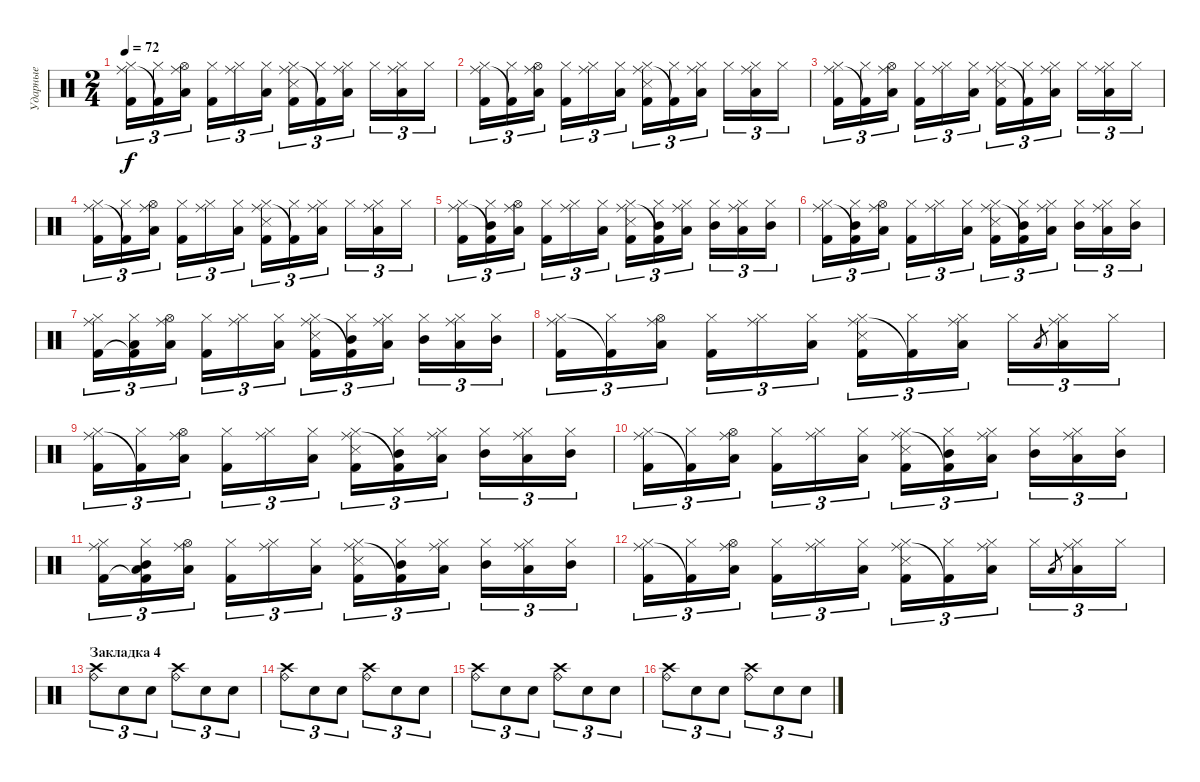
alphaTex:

\track ("Ударные" "Ударные") {instrument percussion}
\staff {score}
\articulation defaults
\ts (2 4)
\tempo 72
\clef neutral
\ks c
("Hi-Hat (closed)" "Ride (middle)" "Kick (hit) 2").16{tu (3 2) dy f} ("Hi-Hat (closed)" "Kick (hit) 2"{t}).16{tu (3 2)} ("Hi-Hat (open)" "Ride (middle)" "Low Tom (hit)").16{tu (3 2)} ("Hi-Hat (closed)" "Kick (hit) 2").16{tu (3 2)} ("Hi-Hat (closed)" "Ride (middle)").16{tu (3 2)} ("Hi-Hat (closed)" "Low Tom (hit)").16{tu (3 2)} ("Hi-Hat (closed)" "Ride (middle)" "Snare (side stick) 3" "Kick (hit) 2").16{tu (3 2)} ("Hi-Hat (closed)" "Kick (hit) 2"{t}).16{tu (3 2)} ("Hi-Hat (closed)" "Ride (middle)" "Low Tom (hit)").16{tu (3 2)} "Hi-Hat (closed)".16{tu (3 2)} ("Hi-Hat (closed)" "Ride (middle)" "Low Tom (hit)").16{tu (3 2)} "Hi-Hat (closed)".16{tu (3 2)} |
("Hi-Hat (closed)" "Ride (middle)" "Kick (hit) 2").16{tu (3 2)} ("Hi-Hat (closed)" "Kick (hit) 2"{t}).16{tu (3 2)} ("Hi-Hat (open)" "Ride (middle)" "Low Tom (hit)").16{tu (3 2)} ("Hi-Hat (closed)" "Kick (hit) 2").16{tu (3 2)} ("Hi-Hat (closed)" "Ride (middle)").16{tu (3 2)} ("Hi-Hat (closed)" "Low Tom (hit)").16{tu (3 2)} ("Hi-Hat (closed)" "Ride (middle)" "Snare (side stick) 3" "Kick (hit) 2").16{tu (3 2)} ("Hi-Hat (closed)" "Kick (hit) 2"{t}).16{tu (3 2)} ("Hi-Hat (closed)" "Ride (middle)" "Low Tom (hit)").16{tu (3 2)} "Hi-Hat (closed)".16{tu (3 2)} ("Hi-Hat (closed)" "Ride (middle)" "Low Tom (hit)").16{tu (3 2)} "Hi-Hat (closed)".16{tu (3 2)} |
("Hi-Hat (closed)" "Ride (middle)" "Kick (hit) 2").16{tu (3 2)} ("Hi-Hat (closed)" "Kick (hit) 2"{t}).16{tu (3 2)} ("Hi-Hat (open)" "Ride (middle)" "Low Tom (hit)").16{tu (3 2)} ("Hi-Hat (closed)" "Kick (hit) 2").16{tu (3 2)} ("Hi-Hat (closed)" "Ride (middle)").16{tu (3 2)} ("Hi-Hat (closed)" "Low Tom (hit)").16{tu (3 2)} ("Hi-Hat (closed)" "Ride (middle)" "Snare (side stick) 3" "Kick (hit) 2").16{tu (3 2)} ("Hi-Hat (closed)" "Kick (hit) 2"{t}).16{tu (3 2)} ("Hi-Hat (closed)" "Ride (middle)" "Low Tom (hit)").16{tu (3 2)} "Hi-Hat (closed)".16{tu (3 2)} ("Hi-Hat (closed)" "Ride (middle)" "Low Tom (hit)").16{tu (3 2)} "Hi-Hat (closed)".16{tu (3 2)} |
("Hi-Hat (closed)" "Ride (middle)" "Kick (hit) 2").16{tu (3 2)} ("Hi-Hat (closed)" "Kick (hit) 2"{t}).16{tu (3 2)} ("Hi-Hat (open)" "Ride (middle)" "Low Tom (hit)").16{tu (3 2)} ("Hi-Hat (closed)" "Kick (hit) 2").16{tu (3 2)} ("Hi-Hat (closed)" "Ride (middle)").16{tu (3 2)} ("Hi-Hat (closed)" "Low Tom (hit)").16{tu (3 2)} ("Hi-Hat (closed)" "Ride (middle)" "Snare (side stick) 3" "Kick (hit) 2").16{tu (3 2)} ("Hi-Hat (closed)" "Kick (hit) 2"{t}).16{tu (3 2)} ("Hi-Hat (closed)" "Ride (middle)" "Low Tom (hit)").16{tu (3 2)} "Hi-Hat (closed)".16{tu (3 2)} ("Hi-Hat (closed)" "Ride (middle)" "Low Tom (hit)").16{tu (3 2)} "Hi-Hat (closed)".16{tu (3 2)} |
("Hi-Hat (closed)" "Ride (middle)" "Kick (hit) 2").16{tu (3 2)} ("Hi-Hat (closed)" "Kick (hit) 2"{t} "Mid Tom (hit)").16{tu (3 2)} ("Hi-Hat (open)" "Ride (middle)" "Low Tom (hit)").16{tu (3 2)} ("Hi-Hat (closed)" "Kick (hit) 2").16{tu (3 2)} ("Hi-Hat (closed)" "Ride (middle)").16{tu (3 2)} ("Hi-Hat (closed)" "Low Tom (hit)").16{tu (3 2)} ("Hi-Hat (closed)" "Ride (middle)" "Snare (side stick) 3" "Kick (hit) 2").16{tu (3 2)} ("Hi-Hat (closed)" "Kick (hit) 2"{t} "Mid Tom (hit)").16{tu (3 2)} ("Hi-Hat (closed)" "Ride (middle)" "Low Tom (hit)").16{tu (3 2)} ("Hi-Hat (closed)" "Mid Tom (hit)").16{tu (3 2)} ("Hi-Hat (closed)" "Ride (middle)" "Low Tom (hit)").16{tu (3 2)} ("Hi-Hat (closed)" "Mid Tom (hit)").16{tu (3 2)} |
("Hi-Hat (closed)" "Ride (middle)" "Kick (hit) 2").16{tu (3 2)} ("Hi-Hat (closed)" "Kick (hit) 2"{t} "Mid Tom (hit)").16{tu (3 2)} ("Hi-Hat (open)" "Ride (middle)" "Low Tom (hit)").16{tu (3 2)} ("Hi-Hat (closed)" "Kick (hit) 2").16{tu (3 2)} ("Hi-Hat (closed)" "Ride (middle)").16{tu (3 2)} ("Hi-Hat (closed)" "Low Tom (hit)").16{tu (3 2)} ("Hi-Hat (closed)" "Ride (middle)" "Snare (side stick) 3" "Kick (hit) 2").16{tu (3 2)} ("Hi-Hat (closed)" "Kick (hit) 2"{t} "Mid Tom (hit)").16{tu (3 2)} ("Hi-Hat (closed)" "Ride (middle)" "Low Tom (hit)").16{tu (3 2)} ("Hi-Hat (closed)" "Mid Tom (hit)").16{tu (3 2)} ("Hi-Hat (closed)" "Ride (middle)" "Low Tom (hit)").16{tu (3 2)} ("Hi-Hat (closed)" "Mid Tom (hit)").16{tu (3 2)} |
("Hi-Hat (closed)" "Ride (middle)" "Kick (hit) 2").16{tu (3 2)} ("Hi-Hat (closed)" "Low Tom (hit)" "Kick (hit) 2"{t}).16{tu (3 2)} ("Hi-Hat (open)" "Ride (middle)" "Low Tom (hit)").16{tu (3 2)} ("Hi-Hat (closed)" "Kick (hit) 2").16{tu (3 2)} ("Hi-Hat (closed)" "Ride (middle)").16{tu (3 2)} ("Hi-Hat (closed)" "Low Tom (hit)").16{tu (3 2)} ("Hi-Hat (closed)" "Ride (middle)" "Snare (side stick) 3" "Kick (hit) 2").16{tu (3 2)} ("Hi-Hat (closed)" "Kick (hit) 2"{t} "Mid Tom (hit)").16{tu (3 2)} ("Hi-Hat (closed)" "Ride (middle)" "Low Tom (hit)").16{tu (3 2)} ("Hi-Hat (closed)" "Mid Tom (hit)").16{tu (3 2)} ("Hi-Hat (closed)" "Ride (middle)" "Low Tom (hit)").16{tu (3 2)} ("Hi-Hat (closed)" "Mid Tom (hit)").16{tu (3 2)} |
("Hi-Hat (closed)" "Ride (middle)" "Kick (hit) 2").16{tu (3 2)} ("Hi-Hat (closed)" "Kick (hit) 2"{t}).16{tu (3 2)} ("Hi-Hat (open)" "Ride (middle)" "Low Tom (hit)").16{tu (3 2)} ("Hi-Hat (closed)" "Kick (hit) 2").16{tu (3 2)} ("Hi-Hat (closed)" "Ride (middle)").16{tu (3 2)} ("Hi-Hat (closed)" "Low Tom (hit)").16{tu (3 2)} ("Hi-Hat (closed)" "Ride (middle)" "Snare (side stick) 3" "Kick (hit) 2").16{tu (3 2)} ("Hi-Hat (closed)" "Kick (hit) 2"{t}).16{tu (3 2)} ("Hi-Hat (closed)" "Ride (middle)" "Low Tom (hit)").16{tu (3 2)} "Hi-Hat (closed)".16{tu (3 2)} "Low Tom (hit)".8{gr} ("Hi-Hat (closed)" "Ride (middle)" "Low Tom (hit)"{tr (24 16)}).16{tu (3 2)} "Hi-Hat (closed)".16{tu (3 2)} |
("Hi-Hat (closed)" "Ride (middle)" "Kick (hit) 2").16{tu (3 2)} ("Hi-Hat (closed)" "Kick (hit) 2"{t}).16{tu (3 2)} ("Hi-Hat (open)" "Ride (middle)" "Low Tom (hit)").16{tu (3 2)} ("Hi-Hat (closed)" "Kick (hit) 2").16{tu (3 2)} ("Hi-Hat (closed)" "Ride (middle)").16{tu (3 2)} ("Hi-Hat (closed)" "Low Tom (hit)").16{tu (3 2)} ("Hi-Hat (closed)" "Ride (middle)" "Snare (side stick) 3" "Kick (hit) 2").16{tu (3 2)} ("Hi-Hat (closed)" "Kick (hit) 2"{t} "Mid Tom (hit)").16{tu (3 2)} ("Hi-Hat (closed)" "Ride (middle)" "Low Tom (hit)").16{tu (3 2)} ("Hi-Hat (closed)" "Mid Tom (hit)").16{tu (3 2)} ("Hi-Hat (closed)" "Ride (middle)" "Low Tom (hit)").16{tu (3 2)} ("Hi-Hat (closed)" "Mid Tom (hit)").16{tu (3 2)} |
("Hi-Hat (closed)" "Ride (middle)" "Kick (hit) 2").16{tu (3 2)} ("Hi-Hat (closed)" "Kick (hit) 2"{t}).16{tu (3 2)} ("Hi-Hat (open)" "Ride (middle)" "Low Tom (hit)").16{tu (3 2)} ("Hi-Hat (closed)" "Kick (hit) 2").16{tu (3 2)} ("Hi-Hat (closed)" "Ride (middle)").16{tu (3 2)} ("Hi-Hat (closed)" "Low Tom (hit)").16{tu (3 2)} ("Hi-Hat (closed)" "Ride (middle)" "Snare (side stick) 3" "Kick (hit) 2").16{tu (3 2)} ("Hi-Hat (closed)" "Kick (hit) 2"{t} "Mid Tom (hit)").16{tu (3 2)} ("Hi-Hat (closed)" "Ride (middle)" "Low Tom (hit)").16{tu (3 2)} ("Hi-Hat (closed)" "Mid Tom (hit)").16{tu (3 2)} ("Hi-Hat (closed)" "Ride (middle)" "Low Tom (hit)").16{tu (3 2)} ("Hi-Hat (closed)" "Mid Tom (hit)").16{tu (3 2)} |
("Hi-Hat (closed)" "Ride (middle)" "Kick (hit) 2").16{tu (3 2)} ("Hi-Hat (closed)" "Low Tom (hit)" "Kick (hit) 2"{t} "Mid Tom (hit)").16{tu (3 2)} ("Hi-Hat (open)" "Ride (middle)" "Low Tom (hit)").16{tu (3 2)} ("Hi-Hat (closed)" "Kick (hit) 2").16{tu (3 2)} ("Hi-Hat (closed)" "Ride (middle)").16{tu (3 2)} ("Hi-Hat (closed)" "Low Tom (hit)").16{tu (3 2)} ("Hi-Hat (closed)" "Ride (middle)" "Snare (side stick) 3" "Kick (hit) 2").16{tu (3 2)} ("Hi-Hat (closed)" "Kick (hit) 2"{t} "Mid Tom (hit)").16{tu (3 2)} ("Hi-Hat (closed)" "Ride (middle)" "Low Tom (hit)").16{tu (3 2)} ("Hi-Hat (closed)" "Mid Tom (hit)").16{tu (3 2)} ("Hi-Hat (closed)" "Ride (middle)" "Low Tom (hit)").16{tu (3 2)} ("Hi-Hat (closed)" "Mid Tom (hit)").16{tu (3 2)} |
("Hi-Hat (closed)" "Ride (middle)" "Kick (hit) 2").16{tu (3 2)} ("Hi-Hat (closed)" "Kick (hit) 2"{t}).16{tu (3 2)} ("Hi-Hat (open)" "Ride (middle)" "Low Tom (hit)").16{tu (3 2)} ("Hi-Hat (closed)" "Kick (hit) 2").16{tu (3 2)} ("Hi-Hat (closed)" "Ride (middle)").16{tu (3 2)} ("Hi-Hat (closed)" "Low Tom (hit)").16{tu (3 2)} ("Hi-Hat (closed)" "Ride (middle)" "Snare (side stick) 3" "Kick (hit) 2").16{tu (3 2)} ("Hi-Hat (closed)" "Kick (hit) 2"{t}).16{tu (3 2)} ("Hi-Hat (closed)" "Ride (middle)" "Low Tom (hit)").16{tu (3 2)} "Hi-Hat (closed)".16{tu (3 2)} "Low Tom (hit)".8{gr} ("Hi-Hat (closed)" "Ride (middle)" "Low Tom (hit)"{tr (24 16)}).16{tu (3 2)} "Hi-Hat (closed)".16{tu (3 2)} |
\section ("" "Закладка 4")
("Crash high (hit)" "Ride (bell)").8{tu (3 2)} "Electric Snare (hit)".8{tu (3 2)} "Electric Snare (hit)".8{tu (3 2)} ("Crash high (hit)" "Ride (bell)").8{tu (3 2)} "Electric Snare (hit)".8{tu (3 2)} "Electric Snare (hit)".8{tu (3 2)} |
("Crash high (hit)" "Ride (bell)").8{tu (3 2)} "Electric Snare (hit)".8{tu (3 2)} "Electric Snare (hit)".8{tu (3 2)} ("Crash high (hit)" "Ride (bell)").8{tu (3 2)} "Electric Snare (hit)".8{tu (3 2)} "Electric Snare (hit)".8{tu (3 2)} |
("Crash high (hit)" "Ride (bell)").8{tu (3 2)} "Electric Snare (hit)".8{tu (3 2)} "Electric Snare (hit)".8{tu (3 2)} ("Crash high (hit)" "Ride (bell)").8{tu (3 2)} "Electric Snare (hit)".8{tu (3 2)} "Electric Snare (hit)".8{tu (3 2)} |
("Crash high (hit)" "Ride (bell)").8{tu (3 2)} "Electric Snare (hit)".8{tu (3 2)} "Electric Snare (hit)".8{tu (3 2)} ("Crash high (hit)" "Ride (bell)").8{tu (3 2)} "Electric Snare (hit)".8{tu (3 2)} "Electric Snare (hit)".8{tu (3 2)}
